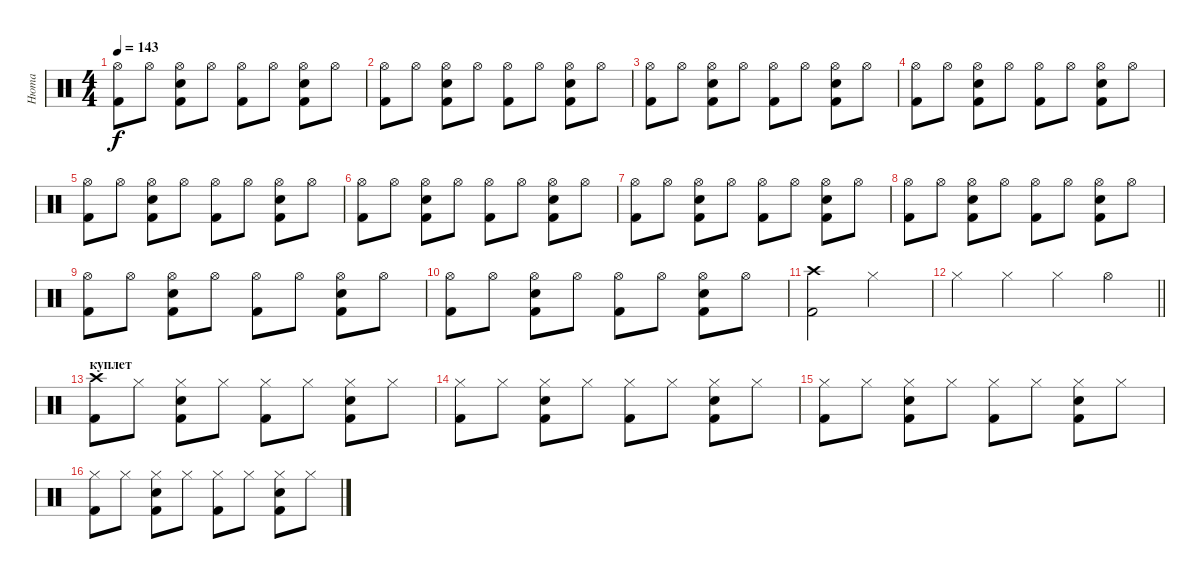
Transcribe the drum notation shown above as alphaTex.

\track ("Нюта" "Нюта") {instrument percussion}
\staff {score}
\articulation defaults
\ts (4 4)
\tempo 143
\clef neutral
\ks c
("Hi-Hat (open)" "Kick (hit) 2").8{dy f} "Hi-Hat (open)".8 ("Hi-Hat (open)" "Snare (hit) 2" "Kick (hit) 2").8 "Hi-Hat (open)".8 ("Hi-Hat (open)" "Kick (hit) 2").8 "Hi-Hat (open)".8 ("Hi-Hat (open)" "Snare (hit) 2" "Kick (hit) 2").8 "Hi-Hat (open)".8 |
("Hi-Hat (open)" "Kick (hit) 2").8 "Hi-Hat (open)".8 ("Hi-Hat (open)" "Snare (hit) 2" "Kick (hit) 2").8 "Hi-Hat (open)".8 ("Hi-Hat (open)" "Kick (hit) 2").8 "Hi-Hat (open)".8 ("Hi-Hat (open)" "Snare (hit) 2" "Kick (hit) 2").8 "Hi-Hat (open)".8 |
("Hi-Hat (open)" "Kick (hit) 2").8 "Hi-Hat (open)".8 ("Hi-Hat (open)" "Snare (hit) 2" "Kick (hit) 2").8 "Hi-Hat (open)".8 ("Hi-Hat (open)" "Kick (hit) 2").8 "Hi-Hat (open)".8 ("Hi-Hat (open)" "Snare (hit) 2" "Kick (hit) 2").8 "Hi-Hat (open)".8 |
("Hi-Hat (open)" "Kick (hit) 2").8 "Hi-Hat (open)".8 ("Hi-Hat (open)" "Snare (hit) 2" "Kick (hit) 2").8 "Hi-Hat (open)".8 ("Hi-Hat (open)" "Kick (hit) 2").8 "Hi-Hat (open)".8 ("Hi-Hat (open)" "Snare (hit) 2" "Kick (hit) 2").8 "Hi-Hat (open)".8 |
("Hi-Hat (open)" "Kick (hit) 2").8 "Hi-Hat (open)".8 ("Hi-Hat (open)" "Snare (hit) 2" "Kick (hit) 2").8 "Hi-Hat (open)".8 ("Hi-Hat (open)" "Kick (hit) 2").8 "Hi-Hat (open)".8 ("Hi-Hat (open)" "Snare (hit) 2" "Kick (hit) 2").8 "Hi-Hat (open)".8 |
("Hi-Hat (open)" "Kick (hit) 2").8 "Hi-Hat (open)".8 ("Hi-Hat (open)" "Snare (hit) 2" "Kick (hit) 2").8 "Hi-Hat (open)".8 ("Hi-Hat (open)" "Kick (hit) 2").8 "Hi-Hat (open)".8 ("Hi-Hat (open)" "Snare (hit) 2" "Kick (hit) 2").8 "Hi-Hat (open)".8 |
("Hi-Hat (open)" "Kick (hit) 2").8 "Hi-Hat (open)".8 ("Hi-Hat (open)" "Snare (hit) 2" "Kick (hit) 2").8 "Hi-Hat (open)".8 ("Hi-Hat (open)" "Kick (hit) 2").8 "Hi-Hat (open)".8 ("Hi-Hat (open)" "Snare (hit) 2" "Kick (hit) 2").8 "Hi-Hat (open)".8 |
("Hi-Hat (open)" "Kick (hit) 2").8 "Hi-Hat (open)".8 ("Hi-Hat (open)" "Snare (hit) 2" "Kick (hit) 2").8 "Hi-Hat (open)".8 ("Hi-Hat (open)" "Kick (hit) 2").8 "Hi-Hat (open)".8 ("Hi-Hat (open)" "Snare (hit) 2" "Kick (hit) 2").8 "Hi-Hat (open)".8 |
("Hi-Hat (open)" "Kick (hit) 2").8 "Hi-Hat (open)".8 ("Hi-Hat (open)" "Snare (hit) 2" "Kick (hit) 2").8 "Hi-Hat (open)".8 ("Hi-Hat (open)" "Kick (hit) 2").8 "Hi-Hat (open)".8 ("Hi-Hat (open)" "Snare (hit) 2" "Kick (hit) 2").8 "Hi-Hat (open)".8 |
("Hi-Hat (open)" "Kick (hit) 2").8 "Hi-Hat (open)".8 ("Hi-Hat (open)" "Snare (hit) 2" "Kick (hit) 2").8 "Hi-Hat (open)".8 ("Hi-Hat (open)" "Kick (hit) 2").8 "Hi-Hat (open)".8 ("Hi-Hat (open)" "Snare (hit) 2" "Kick (hit) 2").8 "Hi-Hat (open)".8 |
("Crash high (hit)" "Kick (hit) 2").2 "Hi-Hat (closed)".2 |
\barLineRight lightlight "Hi-Hat (closed)".4 "Hi-Hat (closed)".4 "Hi-Hat (closed)".4 "Hi-Hat (open)".4
|
\section ("" "куплет")
("Crash high (hit)" "Kick (hit) 2").8 "Hi-Hat (closed)".8 ("Hi-Hat (closed)" "Snare (hit) 2" "Kick (hit) 2").8 "Hi-Hat (closed)".8 ("Hi-Hat (closed)" "Kick (hit) 2").8 "Hi-Hat (closed)".8 ("Hi-Hat (closed)" "Snare (hit) 2" "Kick (hit) 2").8 "Hi-Hat (closed)".8 |
("Hi-Hat (closed)" "Kick (hit) 2").8 "Hi-Hat (closed)".8 ("Hi-Hat (closed)" "Snare (hit) 2" "Kick (hit) 2").8 "Hi-Hat (closed)".8 ("Hi-Hat (closed)" "Kick (hit) 2").8 "Hi-Hat (closed)".8 ("Hi-Hat (closed)" "Snare (hit) 2" "Kick (hit) 2").8 "Hi-Hat (closed)".8 |
("Hi-Hat (closed)" "Kick (hit) 2").8 "Hi-Hat (closed)".8 ("Hi-Hat (closed)" "Snare (hit) 2" "Kick (hit) 2").8 "Hi-Hat (closed)".8 ("Hi-Hat (closed)" "Kick (hit) 2").8 "Hi-Hat (closed)".8 ("Hi-Hat (closed)" "Snare (hit) 2" "Kick (hit) 2").8 "Hi-Hat (closed)".8 |
("Hi-Hat (closed)" "Kick (hit) 2").8 "Hi-Hat (closed)".8 ("Hi-Hat (closed)" "Snare (hit) 2" "Kick (hit) 2").8 "Hi-Hat (closed)".8 ("Hi-Hat (closed)" "Kick (hit) 2").8 "Hi-Hat (closed)".8 ("Hi-Hat (closed)" "Snare (hit) 2" "Kick (hit) 2").8 "Hi-Hat (closed)".8
